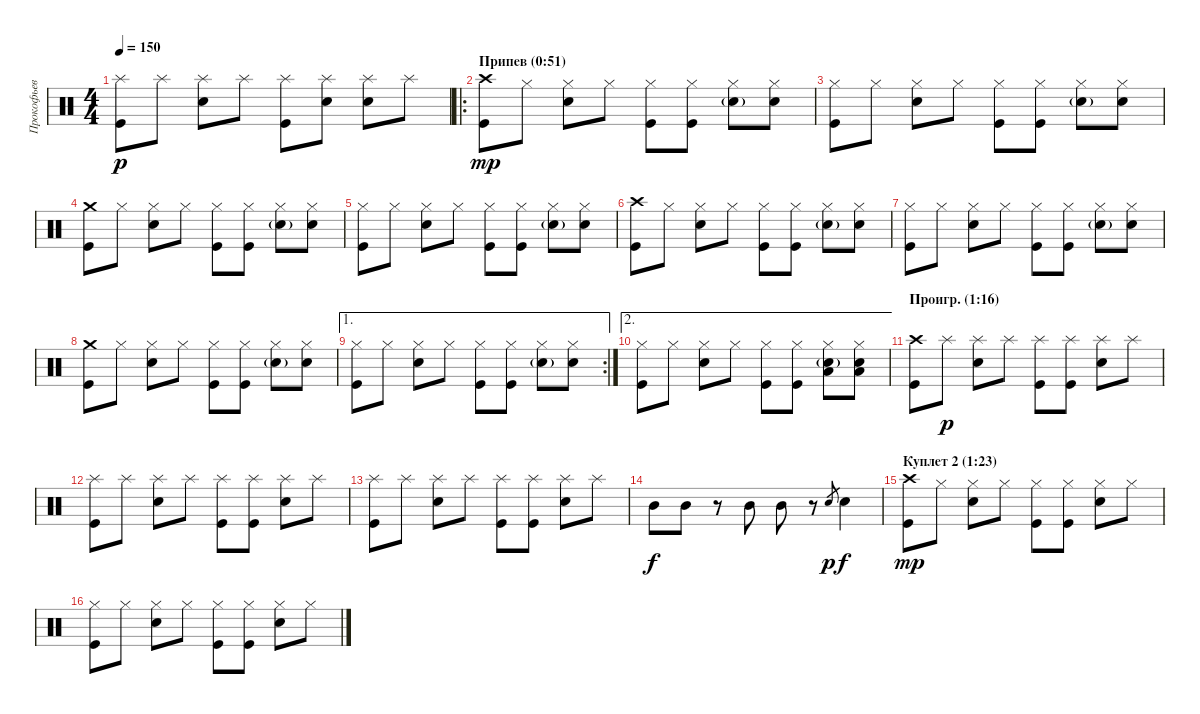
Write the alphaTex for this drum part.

\track ("Прокофьев (Барабаны)" "Прокофьев ") {instrument percussion}
\staff {score}
\articulation defaults
\ts (4 4)
\tempo 150
\clef neutral
\ks c
("Splash (hit)" "Kick (hit)").8{dy p} "Splash (hit)".8 ("Splash (hit)" "Electric Snare (hit)").8 "Splash (hit)".8 ("Splash (hit)" "Kick (hit)").8 ("Splash (hit)" "Electric Snare (hit)").8 ("Splash (hit)" "Electric Snare (hit)").8 "Splash (hit)".8 |
\ro
\section ("" "Припев (0:51)")
("Crash high (hit)" "Kick (hit)").8{dy mp} "Hi-Hat (closed)".8 ("Hi-Hat (closed)" "Electric Snare (hit)").8 "Hi-Hat (closed)".8 ("Hi-Hat (closed)" "Kick (hit)").8 ("Hi-Hat (closed)" "Kick (hit)").8 ("Hi-Hat (closed)" "Electric Snare (hit)"{g}).8 ("Hi-Hat (closed)" "Electric Snare (hit)").8 |
("Hi-Hat (closed)" "Kick (hit)").8 "Hi-Hat (closed)".8 ("Hi-Hat (closed)" "Electric Snare (hit)").8 "Hi-Hat (closed)".8 ("Hi-Hat (closed)" "Kick (hit)").8 ("Hi-Hat (closed)" "Kick (hit)").8 ("Hi-Hat (closed)" "Electric Snare (hit)"{g}).8 ("Hi-Hat (closed)" "Electric Snare (hit)").8 |
("Crash medium (hit)" "Kick (hit)").8 "Hi-Hat (closed)".8 ("Hi-Hat (closed)" "Electric Snare (hit)").8 "Hi-Hat (closed)".8 ("Hi-Hat (closed)" "Kick (hit)").8 ("Hi-Hat (closed)" "Kick (hit)").8 ("Hi-Hat (closed)" "Electric Snare (hit)"{g}).8 ("Hi-Hat (closed)" "Electric Snare (hit)").8 |
("Hi-Hat (closed)" "Kick (hit)").8 "Hi-Hat (closed)".8 ("Hi-Hat (closed)" "Electric Snare (hit)").8 "Hi-Hat (closed)".8 ("Hi-Hat (closed)" "Kick (hit)").8 ("Hi-Hat (closed)" "Kick (hit)").8 ("Hi-Hat (closed)" "Electric Snare (hit)"{g}).8 ("Hi-Hat (closed)" "Electric Snare (hit)").8 |
("Crash high (hit)" "Kick (hit)").8 "Hi-Hat (closed)".8 ("Hi-Hat (closed)" "Electric Snare (hit)").8 "Hi-Hat (closed)".8 ("Hi-Hat (closed)" "Kick (hit)").8 ("Hi-Hat (closed)" "Kick (hit)").8 ("Hi-Hat (closed)" "Electric Snare (hit)"{g}).8 ("Hi-Hat (closed)" "Electric Snare (hit)").8 |
("Hi-Hat (closed)" "Kick (hit)").8 "Hi-Hat (closed)".8 ("Hi-Hat (closed)" "Electric Snare (hit)").8 "Hi-Hat (closed)".8 ("Hi-Hat (closed)" "Kick (hit)").8 ("Hi-Hat (closed)" "Kick (hit)").8 ("Hi-Hat (closed)" "Electric Snare (hit)"{g}).8 ("Hi-Hat (closed)" "Electric Snare (hit)").8 |
("Crash medium (hit)" "Kick (hit)").8 "Hi-Hat (closed)".8 ("Hi-Hat (closed)" "Electric Snare (hit)").8 "Hi-Hat (closed)".8 ("Hi-Hat (closed)" "Kick (hit)").8 ("Hi-Hat (closed)" "Kick (hit)").8 ("Hi-Hat (closed)" "Electric Snare (hit)"{g}).8 ("Hi-Hat (closed)" "Electric Snare (hit)").8 |
\ae 1
\rc 2
("Hi-Hat (closed)" "Kick (hit)").8 "Hi-Hat (closed)".8 ("Hi-Hat (closed)" "Electric Snare (hit)").8 "Hi-Hat (closed)".8 ("Hi-Hat (closed)" "Kick (hit)").8 ("Hi-Hat (closed)" "Kick (hit)").8 ("Hi-Hat (closed)" "Electric Snare (hit)"{g}).8 ("Hi-Hat (closed)" "Electric Snare (hit)").8 |
\ae 2
("Hi-Hat (closed)" "Kick (hit)").8 "Hi-Hat (closed)".8 ("Hi-Hat (closed)" "Electric Snare (hit)").8 "Hi-Hat (closed)".8 ("Hi-Hat (closed)" "Kick (hit)").8 ("Hi-Hat (closed)" "Kick (hit)").8 ("Hi-Hat (closed)" "Low Tom (hit)" "Electric Snare (hit)"{g}).8 ("Hi-Hat (closed)" "Low Tom (hit)" "Electric Snare (hit)").8 |
\section ("" "Проигр. (1:16)")
("Crash high (hit)" "Kick (hit)").8 "Splash (hit)".8{dy p} ("Splash (hit)" "Electric Snare (hit)").8 "Splash (hit)".8 ("Splash (hit)" "Kick (hit)").8 ("Splash (hit)" "Kick (hit)").8 ("Splash (hit)" "Electric Snare (hit)").8 "Splash (hit)".8 |
("Splash (hit)" "Kick (hit)").8 "Splash (hit)".8 ("Splash (hit)" "Electric Snare (hit)").8 "Splash (hit)".8 ("Splash (hit)" "Kick (hit)").8 ("Splash (hit)" "Kick (hit)").8 ("Splash (hit)" "Electric Snare (hit)").8 "Splash (hit)".8 |
("Splash (hit)" "Kick (hit)").8 "Splash (hit)".8 ("Splash (hit)" "Electric Snare (hit)").8 "Splash (hit)".8 ("Splash (hit)" "Kick (hit)").8 ("Splash (hit)" "Kick (hit)").8 ("Splash (hit)" "Electric Snare (hit)").8 "Splash (hit)".8 |
"Mid Tom (hit)".8{dy f} "Mid Tom (hit)".8 r.8 "Mid Tom (hit)".8 "Mid Tom (hit)".8 r.8 "Electric Snare (hit)".8{gr dy p} "Electric Snare (hit)".4{dy f} |
\section ("" "Куплет 2 (1:23)")
("Crash high (hit)" "Kick (hit)").8{dy mp} "Hi-Hat (closed)".8 ("Hi-Hat (closed)" "Electric Snare (hit)").8 "Hi-Hat (closed)".8 ("Hi-Hat (closed)" "Kick (hit)").8 ("Hi-Hat (closed)" "Kick (hit)").8 ("Hi-Hat (closed)" "Electric Snare (hit)").8 "Hi-Hat (closed)".8 |
("Hi-Hat (closed)" "Kick (hit)").8 "Hi-Hat (closed)".8 ("Hi-Hat (closed)" "Electric Snare (hit)").8 "Hi-Hat (closed)".8 ("Hi-Hat (closed)" "Kick (hit)").8 ("Hi-Hat (closed)" "Kick (hit)").8 ("Hi-Hat (closed)" "Electric Snare (hit)").8 "Hi-Hat (closed)".8
